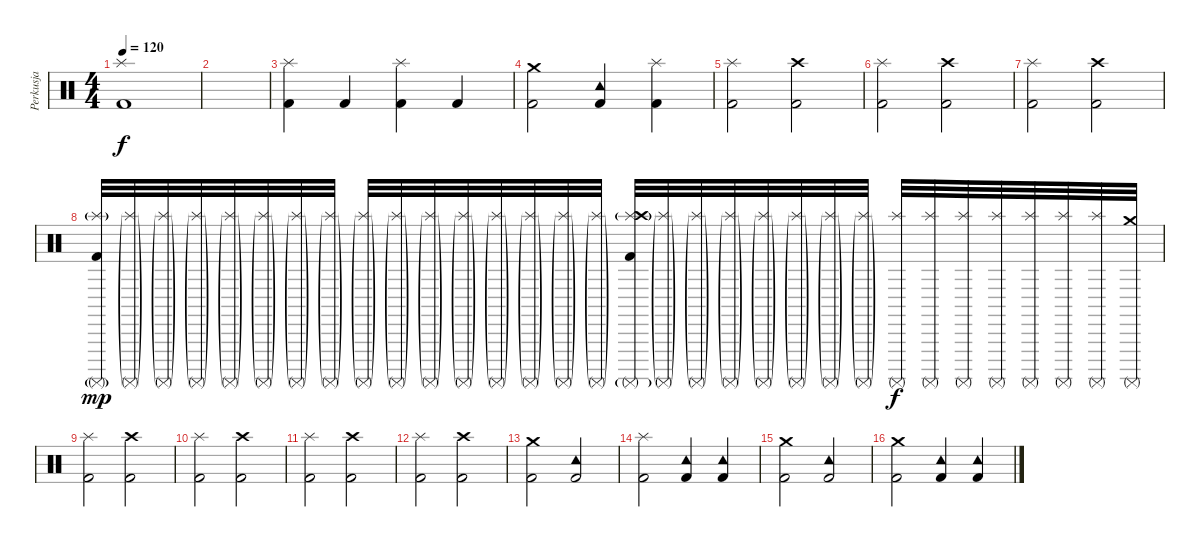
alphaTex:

\track ("Perkusja" "Perkusja") {instrument percussion}
\staff {score}
\articulation defaults
\ts (4 4)
\tempo 120
\clef neutral
\ks c
("Splash (hit)" "Kick (hit) 2").1{dy f} |
|
("Splash (hit)" "Kick (hit) 2").4 "Kick (hit) 2".4 ("Splash (hit)" "Kick (hit) 2").4 "Kick (hit) 2".4 |
("Crash medium (hit)" "Kick (hit) 2").2 ("Tambourine (hit)" "Kick (hit) 2").4 ("Splash (hit)" "Kick (hit) 2").4 |
("Splash (hit)" "Kick (hit) 2").2 ("Crash high (hit)" "Kick (hit) 2").2 |
("Splash (hit)" "Kick (hit) 2").2 ("Crash high (hit)" "Kick (hit) 2").2 |
("Splash (hit)" "Kick (hit) 2").2 ("Crash high (hit)" "Kick (hit) 2").2 |
("Surdo (mute)"{g} "Splash (hit)"{g} "Kick (hit) 2").32{dy mp} ("Surdo (mute)"{g} "Splash (hit)"{g}).32 ("Surdo (mute)"{g} "Splash (hit)"{g}).32 ("Surdo (mute)"{g} "Splash (hit)"{g}).32 ("Surdo (mute)"{g} "Splash (hit)"{g}).32 ("Surdo (mute)"{g} "Splash (hit)"{g}).32 ("Surdo (mute)"{g} "Splash (hit)"{g}).32 ("Surdo (mute)"{g} "Splash (hit)"{g}).32 ("Surdo (mute)"{g} "Splash (hit)"{g}).32 ("Surdo (mute)"{g} "Splash (hit)"{g}).32 ("Surdo (mute)"{g} "Splash (hit)"{g}).32 ("Surdo (mute)"{g} "Splash (hit)"{g}).32 ("Surdo (mute)"{g} "Splash (hit)"{g}).32 ("Surdo (mute)"{g} "Splash (hit)"{g}).32 ("Surdo (mute)"{g} "Splash (hit)"{g}).32 ("Surdo (mute)"{g} "Splash (hit)"{g}).32 ("Surdo (mute)"{g} "Splash (hit)"{g} "Crash high (hit)" "Kick (hit) 2").32 ("Surdo (mute)"{g} "Splash (hit)"{g}).32 ("Surdo (mute)"{g} "Splash (hit)"{g}).32 ("Surdo (mute)"{g} "Splash (hit)"{g}).32 ("Surdo (mute)"{g} "Splash (hit)"{g}).32 ("Surdo (mute)"{g} "Splash (hit)"{g}).32 ("Surdo (mute)"{g} "Splash (hit)"{g}).32 ("Surdo (mute)"{g} "Splash (hit)"{g}).32 ("Surdo (mute)" "Splash (hit)").32{dy f} ("Surdo (mute)" "Splash (hit)").32 ("Surdo (mute)" "Splash (hit)").32 ("Surdo (mute)" "Splash (hit)").32 ("Surdo (mute)" "Splash (hit)").32 ("Surdo (mute)" "Splash (hit)").32 ("Surdo (mute)" "Splash (hit)").32 ("Surdo (mute)" "Crash medium (hit)").32 |
("Splash (hit)" "Kick (hit) 2").2 ("Crash high (hit)" "Kick (hit) 2").2 |
("Splash (hit)" "Kick (hit) 2").2 ("Crash high (hit)" "Kick (hit) 2").2 |
("Splash (hit)" "Kick (hit) 2").2 ("Crash high (hit)" "Kick (hit) 2").2 |
("Splash (hit)" "Kick (hit) 2").2 ("Crash high (hit)" "Kick (hit) 2").2 |
("Crash medium (hit)" "Kick (hit) 2").2 ("Tambourine (hit)" "Kick (hit) 2").2 |
("Splash (hit)" "Kick (hit) 2").2 ("Tambourine (hit)" "Kick (hit) 2").4 ("Tambourine (hit)" "Kick (hit) 2").4 |
("Crash medium (hit)" "Kick (hit) 2").2 ("Tambourine (hit)" "Kick (hit) 2").2 |
("Crash medium (hit)" "Kick (hit) 2").2 ("Tambourine (hit)" "Kick (hit) 2").4 ("Tambourine (hit)" "Kick (hit) 2").4
